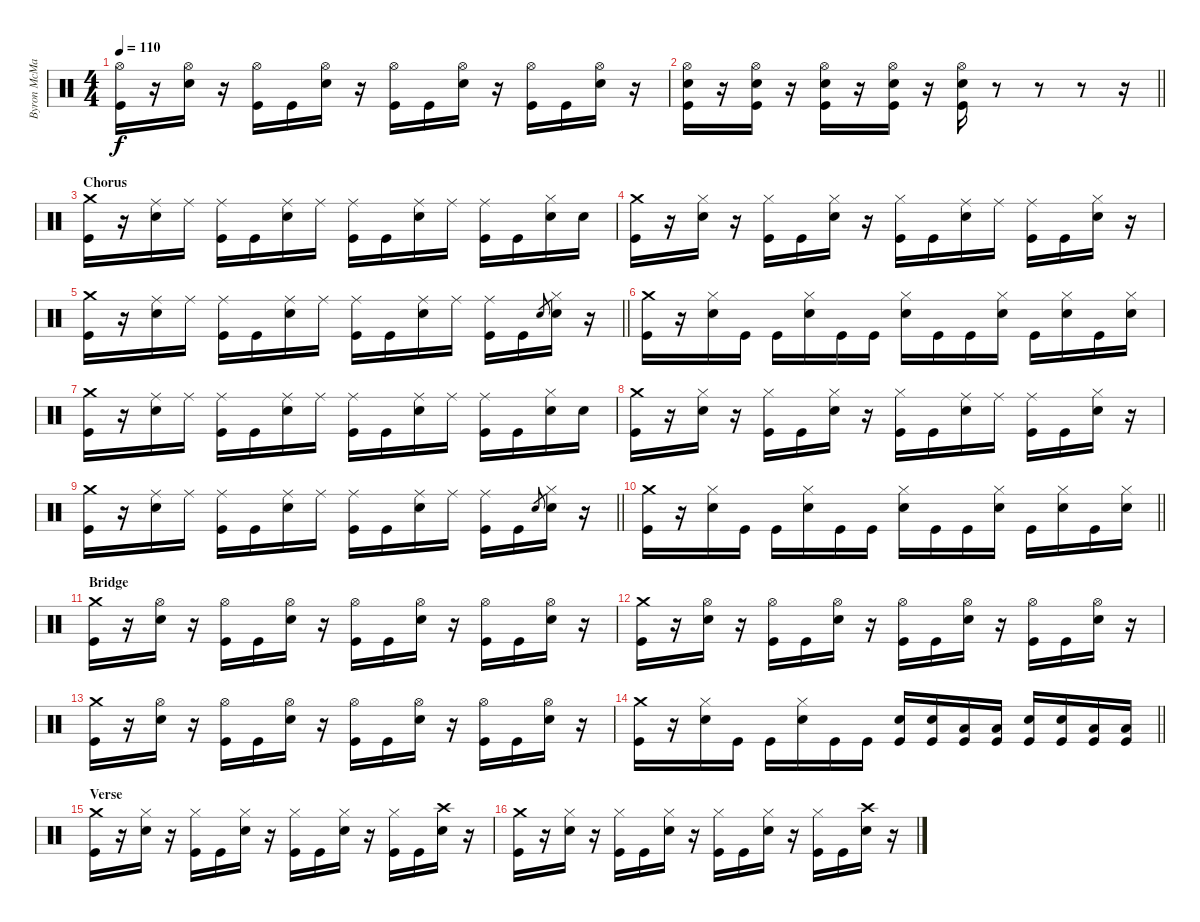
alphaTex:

\track ("Byron McMackin" "Byron McMa") {instrument percussion}
\staff {score}
\articulation defaults
\ts (4 4)
\tempo 110
\clef neutral
\ks c
("Hi-Hat (open)" "Kick (hit)").16{dy f} r.16 ("Hi-Hat (open)" "Electric Snare (hit)").16 r.16 ("Hi-Hat (open)" "Kick (hit)").16 "Kick (hit)".16 ("Hi-Hat (open)" "Electric Snare (hit)").16 r.16 ("Hi-Hat (open)" "Kick (hit)").16 "Kick (hit)".16 ("Hi-Hat (open)" "Electric Snare (hit)").16 r.16 ("Hi-Hat (open)" "Kick (hit)").16 "Kick (hit)".16 ("Hi-Hat (open)" "Electric Snare (hit)").16 r.16 |
\barLineRight lightlight
("Hi-Hat (open)" "Electric Snare (hit)" "Kick (hit)").16 r.16 ("Hi-Hat (open)" "Electric Snare (hit)" "Kick (hit)").16 r.16 ("Hi-Hat (open)" "Electric Snare (hit)" "Kick (hit)").16 r.16 ("Hi-Hat (open)" "Electric Snare (hit)" "Kick (hit)").16 r.16 ("Hi-Hat (open)" "Electric Snare (hit)" "Kick (hit)").16 r.8 r.8 r.8 r.16 |
\section ("" "Chorus")
("Crash medium (hit)" "Kick (hit)").16 r.16 ("Ride (middle)" "Electric Snare (hit)").16 "Ride (middle)".16 ("Ride (middle)" "Kick (hit)").16 "Kick (hit)".16 ("Ride (middle)" "Electric Snare (hit)").16 "Ride (middle)".16 ("Ride (middle)" "Kick (hit)").16 "Kick (hit)".16 ("Ride (middle)" "Electric Snare (hit)").16 "Ride (middle)".16 ("Ride (middle)" "Kick (hit)").16 "Kick (hit)".16 ("Hi-Hat (closed)" "Electric Snare (hit)").16 "Electric Snare (hit)".16 |
("Crash medium (hit)" "Kick (hit)").16 r.16 ("Hi-Hat (closed)" "Electric Snare (hit)").16 r.16 ("Hi-Hat (closed)" "Kick (hit)").16 "Kick (hit)".16 ("Hi-Hat (closed)" "Electric Snare (hit)").16 r.16 ("Hi-Hat (closed)" "Kick (hit)").16 "Kick (hit)".16 ("Ride (middle)" "Electric Snare (hit)").16 "Ride (middle)".16 ("Ride (middle)" "Kick (hit)").16 "Kick (hit)".16 ("Hi-Hat (closed)" "Electric Snare (hit)").16 r.16 |
\barLineRight lightlight
("Crash medium (hit)" "Kick (hit)").16 r.16 ("Ride (middle)" "Electric Snare (hit)").16 "Ride (middle)".16 ("Ride (middle)" "Kick (hit)").16 "Kick (hit)".16 ("Ride (middle)" "Electric Snare (hit)").16 "Ride (middle)".16 ("Ride (middle)" "Kick (hit)").16 "Kick (hit)".16 ("Ride (middle)" "Electric Snare (hit)").16 "Ride (middle)".16 ("Ride (middle)" "Kick (hit)").16 "Kick (hit)".16 "Electric Snare (hit)".8{gr} ("Hi-Hat (closed)" "Electric Snare (hit)").16 r.16 |
("Crash medium (hit)" "Kick (hit)").16 r.16 ("Hi-Hat (closed)" "Electric Snare (hit)").16 "Kick (hit)".16 "Kick (hit)".16 ("Hi-Hat (closed)" "Electric Snare (hit)").16 "Kick (hit)".16 "Kick (hit)".16 ("Hi-Hat (closed)" "Electric Snare (hit)").16 "Kick (hit)".16 "Kick (hit)".16 ("Hi-Hat (closed)" "Electric Snare (hit)").16 "Kick (hit)".16 ("Hi-Hat (closed)" "Electric Snare (hit)").16 "Kick (hit)".16 ("Hi-Hat (closed)" "Electric Snare (hit)").16 |
("Crash medium (hit)" "Kick (hit)").16 r.16 ("Ride (middle)" "Electric Snare (hit)").16 "Ride (middle)".16 ("Ride (middle)" "Kick (hit)").16 "Kick (hit)".16 ("Ride (middle)" "Electric Snare (hit)").16 "Ride (middle)".16 ("Ride (middle)" "Kick (hit)").16 "Kick (hit)".16 ("Ride (middle)" "Electric Snare (hit)").16 "Ride (middle)".16 ("Ride (middle)" "Kick (hit)").16 "Kick (hit)".16 ("Hi-Hat (closed)" "Electric Snare (hit)").16 "Electric Snare (hit)".16 |
("Crash medium (hit)" "Kick (hit)").16 r.16 ("Hi-Hat (closed)" "Electric Snare (hit)").16 r.16 ("Hi-Hat (closed)" "Kick (hit)").16 "Kick (hit)".16 ("Hi-Hat (closed)" "Electric Snare (hit)").16 r.16 ("Hi-Hat (closed)" "Kick (hit)").16 "Kick (hit)".16 ("Ride (middle)" "Electric Snare (hit)").16 "Ride (middle)".16 ("Ride (middle)" "Kick (hit)").16 "Kick (hit)".16 ("Hi-Hat (closed)" "Electric Snare (hit)").16 r.16 |
\barLineRight lightlight
("Crash medium (hit)" "Kick (hit)").16 r.16 ("Ride (middle)" "Electric Snare (hit)").16 "Ride (middle)".16 ("Ride (middle)" "Kick (hit)").16 "Kick (hit)".16 ("Ride (middle)" "Electric Snare (hit)").16 "Ride (middle)".16 ("Ride (middle)" "Kick (hit)").16 "Kick (hit)".16 ("Ride (middle)" "Electric Snare (hit)").16 "Ride (middle)".16 ("Ride (middle)" "Kick (hit)").16 "Kick (hit)".16 "Electric Snare (hit)".8{gr} ("Hi-Hat (closed)" "Electric Snare (hit)").16 r.16 |
\barLineRight lightlight
("Crash medium (hit)" "Kick (hit)").16 r.16 ("Hi-Hat (closed)" "Electric Snare (hit)").16 "Kick (hit)".16 "Kick (hit)".16 ("Hi-Hat (closed)" "Electric Snare (hit)").16 "Kick (hit)".16 "Kick (hit)".16 ("Hi-Hat (closed)" "Electric Snare (hit)").16 "Kick (hit)".16 "Kick (hit)".16 ("Hi-Hat (closed)" "Electric Snare (hit)").16 "Kick (hit)".16 ("Hi-Hat (closed)" "Electric Snare (hit)").16 "Kick (hit)".16 ("Hi-Hat (closed)" "Electric Snare (hit)").16 |
\section ("" "Bridge")
("Crash medium (hit)" "Kick (hit)").16 r.16 ("Hi-Hat (open)" "Electric Snare (hit)").16 r.16 ("Hi-Hat (open)" "Kick (hit)").16 "Kick (hit)".16 ("Hi-Hat (open)" "Electric Snare (hit)").16 r.16 ("Hi-Hat (open)" "Kick (hit)").16 "Kick (hit)".16 ("Hi-Hat (open)" "Electric Snare (hit)").16 r.16 ("Hi-Hat (open)" "Kick (hit)").16 "Kick (hit)".16 ("Hi-Hat (open)" "Electric Snare (hit)").16 r.16 |
("Crash medium (hit)" "Kick (hit)").16 r.16 ("Hi-Hat (open)" "Electric Snare (hit)").16 r.16 ("Hi-Hat (open)" "Kick (hit)").16 "Kick (hit)".16 ("Hi-Hat (open)" "Electric Snare (hit)").16 r.16 ("Hi-Hat (open)" "Kick (hit)").16 "Kick (hit)".16 ("Hi-Hat (open)" "Electric Snare (hit)").16 r.16 ("Hi-Hat (open)" "Kick (hit)").16 "Kick (hit)".16 ("Hi-Hat (open)" "Electric Snare (hit)").16 r.16 |
("Crash medium (hit)" "Kick (hit)").16 r.16 ("Hi-Hat (open)" "Electric Snare (hit)").16 r.16 ("Hi-Hat (open)" "Kick (hit)").16 "Kick (hit)".16 ("Hi-Hat (open)" "Electric Snare (hit)").16 r.16 ("Hi-Hat (open)" "Kick (hit)").16 "Kick (hit)".16 ("Hi-Hat (open)" "Electric Snare (hit)").16 r.16 ("Hi-Hat (open)" "Kick (hit)").16 "Kick (hit)".16 ("Hi-Hat (open)" "Electric Snare (hit)").16 r.16 |
\barLineRight lightlight
("Crash medium (hit)" "Kick (hit)").16 r.16 ("Hi-Hat (closed)" "Electric Snare (hit)").16 "Kick (hit)".16 "Kick (hit)".16 ("Hi-Hat (closed)" "Electric Snare (hit)").16 "Kick (hit)".16 "Kick (hit)".16 ("Electric Snare (hit)" "Kick (hit)").16 ("Electric Snare (hit)" "Kick (hit)").16 ("Low Tom (hit)" "Kick (hit)").16 ("Low Tom (hit)" "Kick (hit)").16 ("Electric Snare (hit)" "Kick (hit)").16 ("Electric Snare (hit)" "Kick (hit)").16 ("Low Tom (hit)" "Kick (hit)").16 ("Low Tom (hit)" "Kick (hit)").16 |
\section ("" "Verse")
("Crash medium (hit)" "Kick (hit)").16 r.16 ("Hi-Hat (closed)" "Electric Snare (hit)").16 r.16 ("Hi-Hat (closed)" "Kick (hit)").16 "Kick (hit)".16 ("Hi-Hat (closed)" "Electric Snare (hit)").16 r.16 ("Hi-Hat (closed)" "Kick (hit)").16 "Kick (hit)".16 ("Hi-Hat (closed)" "Electric Snare (hit)").16 r.16 ("Hi-Hat (closed)" "Kick (hit)").16 "Kick (hit)".16 ("Crash high (hit)" "Electric Snare (hit)").16 r.16 |
("Crash medium (hit)" "Kick (hit)").16 r.16 ("Hi-Hat (closed)" "Electric Snare (hit)").16 r.16 ("Hi-Hat (closed)" "Kick (hit)").16 "Kick (hit)".16 ("Hi-Hat (closed)" "Electric Snare (hit)").16 r.16 ("Hi-Hat (closed)" "Kick (hit)").16 "Kick (hit)".16 ("Hi-Hat (closed)" "Electric Snare (hit)").16 r.16 ("Hi-Hat (closed)" "Kick (hit)").16 "Kick (hit)".16 ("Crash high (hit)" "Electric Snare (hit)").16 r.16
